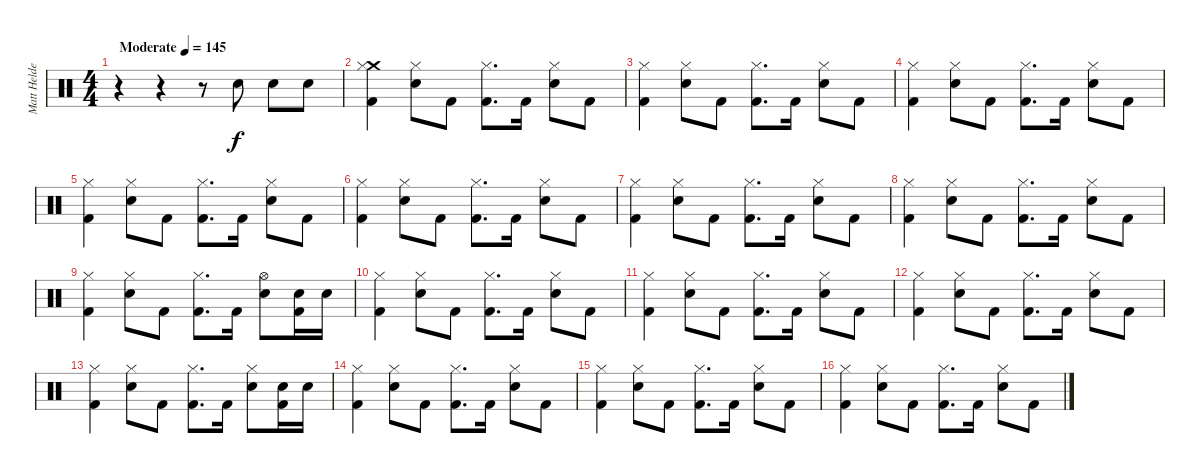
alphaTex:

\track ("Matt Helders (Percussion)" "Matt Helde") {instrument percussion}
\staff {score}
\articulation defaults
\ts (4 4)
\tempo (145 "Moderate")
\clef neutral
\ks c
r.4{dy f} r.4 r.8 "Snare (hit) 2".8 "Snare (hit) 2".8 "Snare (hit) 2".8 |
("Crash medium (hit)" "Hi-Hat (closed)" "Kick (hit) 2").4 ("Hi-Hat (closed)" "Snare (hit) 2").8 "Kick (hit) 2".8 ("Hi-Hat (closed)" "Kick (hit) 2").8{d} "Kick (hit) 2".16 ("Hi-Hat (closed)" "Snare (hit) 2").8 "Kick (hit) 2".8 |
("Hi-Hat (closed)" "Kick (hit) 2").4 ("Hi-Hat (closed)" "Snare (hit) 2").8 "Kick (hit) 2".8 ("Hi-Hat (closed)" "Kick (hit) 2").8{d} "Kick (hit) 2".16 ("Hi-Hat (closed)" "Snare (hit) 2").8 "Kick (hit) 2".8 |
("Hi-Hat (closed)" "Kick (hit) 2").4 ("Hi-Hat (closed)" "Snare (hit) 2").8 "Kick (hit) 2".8 ("Hi-Hat (closed)" "Kick (hit) 2").8{d} "Kick (hit) 2".16 ("Hi-Hat (closed)" "Snare (hit) 2").8 "Kick (hit) 2".8 |
("Hi-Hat (closed)" "Kick (hit) 2").4 ("Hi-Hat (closed)" "Snare (hit) 2").8 "Kick (hit) 2".8 ("Hi-Hat (closed)" "Kick (hit) 2").8{d} "Kick (hit) 2".16 ("Hi-Hat (closed)" "Snare (hit) 2").8 "Kick (hit) 2".8 |
("Hi-Hat (closed)" "Kick (hit) 2").4 ("Hi-Hat (closed)" "Snare (hit) 2").8 "Kick (hit) 2".8 ("Hi-Hat (closed)" "Kick (hit) 2").8{d} "Kick (hit) 2".16 ("Hi-Hat (closed)" "Snare (hit) 2").8 "Kick (hit) 2".8 |
("Hi-Hat (closed)" "Kick (hit) 2").4 ("Hi-Hat (closed)" "Snare (hit) 2").8 "Kick (hit) 2".8 ("Hi-Hat (closed)" "Kick (hit) 2").8{d} "Kick (hit) 2".16 ("Hi-Hat (closed)" "Snare (hit) 2").8 "Kick (hit) 2".8 |
("Hi-Hat (closed)" "Kick (hit) 2").4 ("Hi-Hat (closed)" "Snare (hit) 2").8 "Kick (hit) 2".8 ("Hi-Hat (closed)" "Kick (hit) 2").8{d} "Kick (hit) 2".16 ("Hi-Hat (closed)" "Snare (hit) 2").8 "Kick (hit) 2".8 |
("Hi-Hat (closed)" "Kick (hit) 2").4 ("Hi-Hat (closed)" "Snare (hit) 2").8 "Kick (hit) 2".8 ("Hi-Hat (closed)" "Kick (hit) 2").8{d} "Kick (hit) 2".16 ("Hi-Hat (open)" "Snare (hit) 2").8 ("Snare (hit) 2" "Kick (hit) 2").16 "Snare (hit) 2".16 |
("Hi-Hat (closed)" "Kick (hit) 2").4 ("Hi-Hat (closed)" "Snare (hit) 2").8 "Kick (hit) 2".8 ("Hi-Hat (closed)" "Kick (hit) 2").8{d} "Kick (hit) 2".16 ("Hi-Hat (closed)" "Snare (hit) 2").8 "Kick (hit) 2".8 |
("Hi-Hat (closed)" "Kick (hit) 2").4 ("Hi-Hat (closed)" "Snare (hit) 2").8 "Kick (hit) 2".8 ("Hi-Hat (closed)" "Kick (hit) 2").8{d} "Kick (hit) 2".16 ("Hi-Hat (closed)" "Snare (hit) 2").8 "Kick (hit) 2".8 |
("Hi-Hat (closed)" "Kick (hit) 2").4 ("Hi-Hat (closed)" "Snare (hit) 2").8 "Kick (hit) 2".8 ("Hi-Hat (closed)" "Kick (hit) 2").8{d} "Kick (hit) 2".16 ("Hi-Hat (closed)" "Snare (hit) 2").8 "Kick (hit) 2".8 |
("Hi-Hat (closed)" "Kick (hit) 2").4 ("Hi-Hat (closed)" "Snare (hit) 2").8 "Kick (hit) 2".8 ("Hi-Hat (closed)" "Kick (hit) 2").8{d} "Kick (hit) 2".16 ("Hi-Hat (closed)" "Snare (hit) 2").8 ("Snare (hit) 2" "Kick (hit) 2").16 "Snare (hit) 2".16 |
("Hi-Hat (closed)" "Kick (hit) 2").4 ("Hi-Hat (closed)" "Snare (hit) 2").8 "Kick (hit) 2".8 ("Hi-Hat (closed)" "Kick (hit) 2").8{d} "Kick (hit) 2".16 ("Hi-Hat (closed)" "Snare (hit) 2").8 "Kick (hit) 2".8 |
("Hi-Hat (closed)" "Kick (hit) 2").4 ("Hi-Hat (closed)" "Snare (hit) 2").8 "Kick (hit) 2".8 ("Hi-Hat (closed)" "Kick (hit) 2").8{d} "Kick (hit) 2".16 ("Hi-Hat (closed)" "Snare (hit) 2").8 "Kick (hit) 2".8 |
("Hi-Hat (closed)" "Kick (hit) 2").4 ("Hi-Hat (closed)" "Snare (hit) 2").8 "Kick (hit) 2".8 ("Hi-Hat (closed)" "Kick (hit) 2").8{d} "Kick (hit) 2".16 ("Hi-Hat (closed)" "Snare (hit) 2").8 "Kick (hit) 2".8
